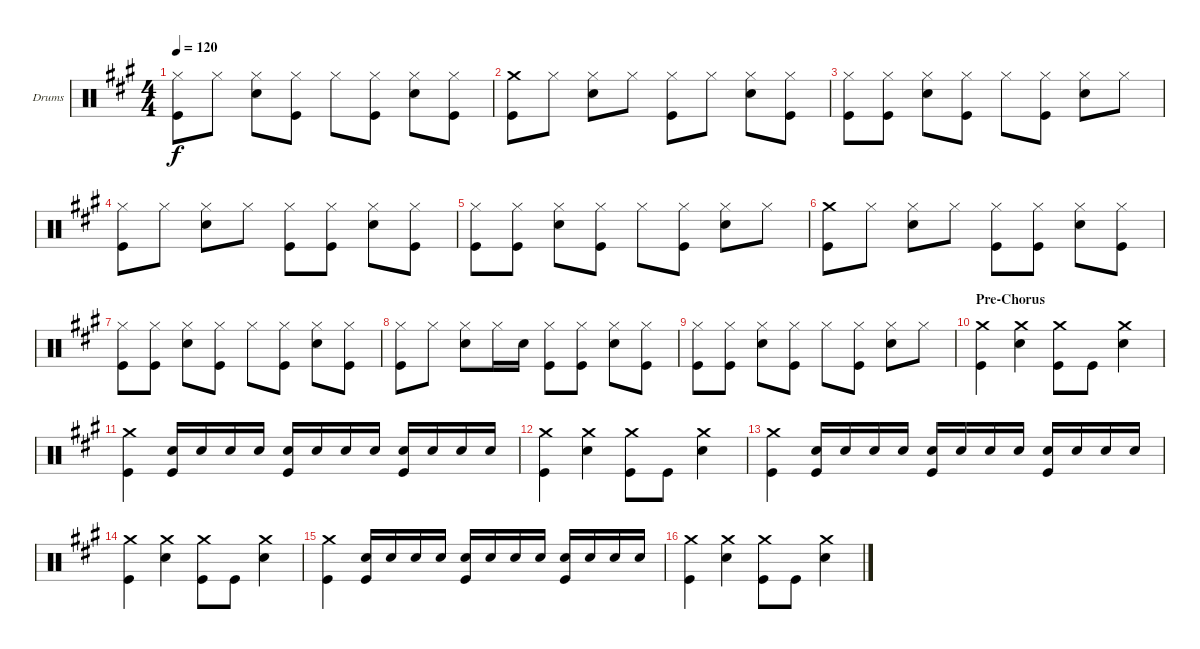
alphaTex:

\defaultSystemsLayout 4
\bracketExtendMode groupsimilarinstruments
\firstSystemTrackNameOrientation horizontal
\otherSystemsTrackNameOrientation horizontal
\track ("Drum" "Drums") {instrument percussion}
\staff {score}
\articulation defaults
\ts (4 4)
\tempo 120
\clef neutral
\scale
1.05801
\ks a
("Hi-Hat (closed)" "Kick (hit)").8{dy f} "Hi-Hat (closed)".8 ("Hi-Hat (closed)" "Snare (hit) 2").8 ("Hi-Hat (closed)" "Kick (hit)").8 "Hi-Hat (closed)".8 ("Hi-Hat (closed)" "Kick (hit)").8 ("Hi-Hat (closed)" "Snare (hit) 2").8 ("Hi-Hat (closed)" "Kick (hit)").8 |
\scale
0.941992 ("Crash medium (hit)" "Kick (hit)").8 "Hi-Hat (closed)".8 ("Hi-Hat (closed)" "Snare (hit) 2").8 "Hi-Hat (closed)".8 ("Hi-Hat (closed)" "Kick (hit)").8 "Hi-Hat (closed)".8 ("Hi-Hat (closed)" "Snare (hit) 2").8 ("Hi-Hat (closed)" "Kick (hit)").8 |
\scale
1.05801 ("Hi-Hat (closed)" "Kick (hit)").8 ("Hi-Hat (closed)" "Kick (hit)").8 ("Hi-Hat (closed)" "Snare (hit) 2").8 ("Hi-Hat (closed)" "Kick (hit)").8 "Hi-Hat (closed)".8 ("Hi-Hat (closed)" "Kick (hit)").8 ("Hi-Hat (closed)" "Snare (hit) 2").8 "Hi-Hat (closed)".8 |
\scale
0.941992 ("Hi-Hat (closed)" "Kick (hit)").8 "Hi-Hat (closed)".8 ("Hi-Hat (closed)" "Snare (hit) 2").8 "Hi-Hat (closed)".8 ("Hi-Hat (closed)" "Kick (hit)").8 ("Hi-Hat (closed)" "Kick (hit)").8 ("Hi-Hat (closed)" "Snare (hit) 2").8 ("Hi-Hat (closed)" "Kick (hit)").8 |
\scale
1.05801 ("Hi-Hat (closed)" "Kick (hit)").8 ("Hi-Hat (closed)" "Kick (hit)").8 ("Hi-Hat (closed)" "Snare (hit) 2").8 ("Hi-Hat (closed)" "Kick (hit)").8 "Hi-Hat (closed)".8 ("Hi-Hat (closed)" "Kick (hit)").8 ("Hi-Hat (closed)" "Snare (hit) 2").8 "Hi-Hat (closed)".8 |
\scale
0.941992 ("Crash medium (hit)" "Kick (hit)").8 "Hi-Hat (closed)".8 ("Hi-Hat (closed)" "Snare (hit) 2").8 "Hi-Hat (closed)".8 ("Hi-Hat (closed)" "Kick (hit)").8 ("Hi-Hat (closed)" "Kick (hit)").8 ("Hi-Hat (closed)" "Snare (hit) 2").8 ("Hi-Hat (closed)" "Kick (hit)").8 |
\scale
1.05801 ("Hi-Hat (closed)" "Kick (hit)").8 ("Hi-Hat (closed)" "Kick (hit)").8 ("Hi-Hat (closed)" "Snare (hit) 2").8 ("Hi-Hat (closed)" "Kick (hit)").8 "Hi-Hat (closed)".8 ("Hi-Hat (closed)" "Kick (hit)").8 ("Hi-Hat (closed)" "Snare (hit) 2").8 ("Hi-Hat (closed)" "Kick (hit)").8 |
\scale
0.941992 ("Hi-Hat (closed)" "Kick (hit)").8 "Hi-Hat (closed)".8 ("Hi-Hat (closed)" "Snare (hit) 2").8 "Hi-Hat (closed)".16 "Snare (hit) 2".16 ("Hi-Hat (closed)" "Kick (hit)").8 ("Hi-Hat (closed)" "Kick (hit)").8 ("Hi-Hat (closed)" "Snare (hit) 2").8 ("Hi-Hat (closed)" "Kick (hit)").8 |
\scale
1.05801 ("Hi-Hat (closed)" "Kick (hit)").8 ("Hi-Hat (closed)" "Kick (hit)").8 ("Hi-Hat (closed)" "Snare (hit) 2").8 ("Hi-Hat (closed)" "Kick (hit)").8 "Hi-Hat (closed)".8 ("Hi-Hat (closed)" "Kick (hit)").8 ("Hi-Hat (closed)" "Snare (hit) 2").8 "Hi-Hat (closed)".8 |
\section ("" "Pre-Chorus")
\scale
0.941992 ("Crash medium (hit)" "Kick (hit)").4 ("Crash medium (hit)" "Snare (hit) 2").4 ("Crash medium (hit)" "Kick (hit)").8 "Kick (hit)".8 ("Crash medium (hit)" "Snare (hit) 2").4 |
\scale
1.05801 ("Crash medium (hit)" "Kick (hit)").4 ("Kick (hit)" "Snare (hit) 2").16 "Snare (hit) 2".16 "Snare (hit) 2".16 "Snare (hit) 2".16 ("Kick (hit)" "Snare (hit) 2").16 "Snare (hit) 2".16 "Snare (hit) 2".16 "Snare (hit) 2".16 ("Kick (hit)" "Snare (hit) 2").16 "Snare (hit) 2".16 "Snare (hit) 2".16 "Snare (hit) 2".16 |
\scale
0.941992 ("Crash medium (hit)" "Kick (hit)").4 ("Crash medium (hit)" "Snare (hit) 2").4 ("Crash medium (hit)" "Kick (hit)").8 "Kick (hit)".8 ("Crash medium (hit)" "Snare (hit) 2").4 |
\scale
1.05801 ("Crash medium (hit)" "Kick (hit)").4 ("Kick (hit)" "Snare (hit) 2").16 "Snare (hit) 2".16 "Snare (hit) 2".16 "Snare (hit) 2".16 ("Kick (hit)" "Snare (hit) 2").16 "Snare (hit) 2".16 "Snare (hit) 2".16 "Snare (hit) 2".16 ("Kick (hit)" "Snare (hit) 2").16 "Snare (hit) 2".16 "Snare (hit) 2".16 "Snare (hit) 2".16 |
\scale
0.941992 ("Crash medium (hit)" "Kick (hit)").4 ("Crash medium (hit)" "Snare (hit) 2").4 ("Crash medium (hit)" "Kick (hit)").8 "Kick (hit)".8 ("Crash medium (hit)" "Snare (hit) 2").4 |
\scale
1.05801 ("Crash medium (hit)" "Kick (hit)").4 ("Kick (hit)" "Snare (hit) 2").16 "Snare (hit) 2".16 "Snare (hit) 2".16 "Snare (hit) 2".16 ("Kick (hit)" "Snare (hit) 2").16 "Snare (hit) 2".16 "Snare (hit) 2".16 "Snare (hit) 2".16 ("Kick (hit)" "Snare (hit) 2").16 "Snare (hit) 2".16 "Snare (hit) 2".16 "Snare (hit) 2".16 |
\scale
0.941992 ("Crash medium (hit)" "Kick (hit)").4 ("Crash medium (hit)" "Snare (hit) 2").4 ("Crash medium (hit)" "Kick (hit)").8 "Kick (hit)".8 ("Crash medium (hit)" "Snare (hit) 2").4
